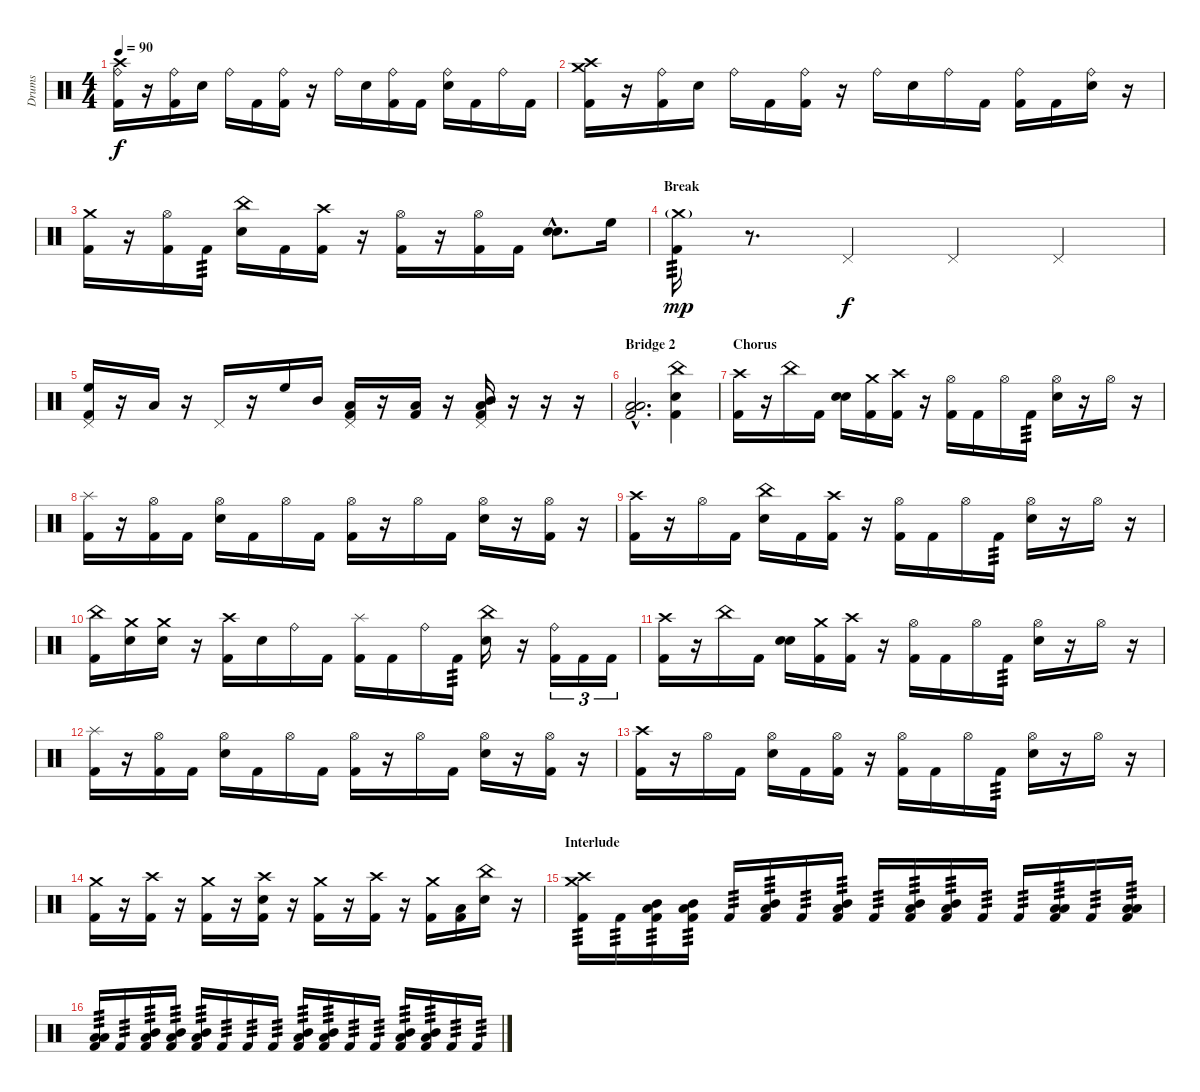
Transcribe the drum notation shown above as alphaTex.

\track ("Drums" "Drums") {instrument percussion}
\staff {score}
\articulation defaults
\ts (4 4)
\tempo 90
\clef neutral
\ks c
("Ride (bell)" "Crash high (hit)" "Kick (hit) 2").16{dy f} r.16 ("Ride (bell)" "Kick (hit) 2").16 "Snare (hit) 2".16 "Ride (bell)".16 "Kick (hit) 2".16 ("Ride (bell)" "Kick (hit) 2").16 r.16 "Ride (bell)".16 "Snare (hit) 2".16 ("Ride (bell)" "Kick (hit) 2").16 "Kick (hit) 2".16 ("Ride (bell)" "Snare (hit) 2").16 "Kick (hit) 2".16 "Ride (bell)".16 "Kick (hit) 2".16 |
("Crash high (hit)" "Crash medium (hit)" "Kick (hit) 2").16 r.16 ("Ride (bell)" "Kick (hit) 2").16 "Snare (hit) 2".16 "Ride (bell)".16 "Kick (hit) 2".16 ("Ride (bell)" "Kick (hit) 2").16 r.16 "Ride (bell)".16 "Snare (hit) 2".16 "Ride (bell)".16 "Kick (hit) 2".16 ("Ride (bell)" "Kick (hit) 2").16 "Kick (hit) 2".16 ("Ride (bell)" "Snare (hit) 2").16 r.16 |
("Crash medium (hit)" "Kick (hit) 2").16 r.16 ("Hi-Hat (open)" "Kick (hit) 2").16 "Kick (hit) 2".16{tp 3} ("China (hit)" "Snare (hit) 2").16 "Kick (hit) 2".16 ("Crash high (hit)" "Kick (hit) 2").16 r.16 ("Hi-Hat (open)" "Kick (hit) 2").16 r.16 ("Hi-Hat (open)" "Kick (hit) 2").16 "Kick (hit) 2".16 ("Snare (hit) 2"{hac} "Snare (hit) 2"{hac}).8{d} "High Floor Tom (hit)".16 |
\section ("" "Break")
("Crash medium (hit)"{g} "Kick (hit) 2").16{tp 3 dy mp} r.8{d} "Pedal Hi-Hat (hit)".4{dy f} "Pedal Hi-Hat (hit)".4 "Pedal Hi-Hat (hit)".4 |
("Pedal Hi-Hat (hit)" "High Floor Tom (hit)" "Kick (hit) 2").16 r.16 "Low Tom (hit)".16 r.16 "Pedal Hi-Hat (hit)".16 r.16 "High Floor Tom (hit)".16 "Mid Tom (hit)".16 ("Pedal Hi-Hat (hit)" "Low Tom (hit)" "Kick (hit) 2").16 r.16 ("Low Floor Tom (hit)" "Kick (hit) 2").16 r.16 ("Pedal Hi-Hat (hit)" "Mid Tom (hit)" "Low Floor Tom (hit)" "Kick (hit) 2").16 r.16 r.16 r.16 |
\section ("" "Bridge 2")
("Low Tom (hit)"{hac} "Low Floor Tom (hit)"{hac} "Kick (hit) 2"{hac}).2{d} ("China (hit)" "Snare (hit) 2" "Kick (hit) 2").4 |
\section ("" "Chorus")
("Crash high (hit)" "Kick (hit) 2").16 r.16 "China (hit)".16 "Kick (hit) 2".16 ("Snare (hit) 2" "Snare (hit) 2").16 ("Crash medium (hit)" "Kick (hit) 2").16 ("Crash high (hit)" "Kick (hit) 2").16 r.16 ("Hi-Hat (open)" "Kick (hit) 2").16 "Kick (hit) 2".16 "Hi-Hat (open)".16 "Kick (hit) 2".16{tp 3} ("Hi-Hat (open)" "Snare (hit) 2").16 r.16 "Hi-Hat (open)".16 r.16 |
("Splash (hit)" "Kick (hit) 2").16 r.16 ("Hi-Hat (open)" "Kick (hit) 2").16 "Kick (hit) 2".16 ("Hi-Hat (open)" "Snare (hit) 2").16 "Kick (hit) 2".16 "Hi-Hat (open)".16 "Kick (hit) 2".16 ("Hi-Hat (open)" "Kick (hit) 2").16 r.16 "Hi-Hat (open)".16 "Kick (hit) 2".16 ("Hi-Hat (open)" "Snare (hit) 2").16 r.16 ("Hi-Hat (open)" "Kick (hit) 2").16 r.16 |
("Crash high (hit)" "Kick (hit) 2").16 r.16 "Hi-Hat (open)".16 "Kick (hit) 2".16 ("China (hit)" "Snare (hit) 2").16 "Kick (hit) 2".16 ("Crash high (hit)" "Kick (hit) 2").16 r.16 ("Hi-Hat (open)" "Kick (hit) 2").16 "Kick (hit) 2".16 "Hi-Hat (open)".16 "Kick (hit) 2".16{tp 3} ("Hi-Hat (open)" "Snare (hit) 2").16 r.16 "Hi-Hat (open)".16 r.16 |
("China (hit)" "Kick (hit) 2").16 ("Crash medium (hit)" "Snare (hit) 2").16 ("Crash medium (hit)" "Snare (hit) 2").16 r.16 ("Crash high (hit)" "Kick (hit) 2").16 "Snare (hit) 2".16 "Ride (bell)".16 "Kick (hit) 2".16 ("Splash (hit)" "Kick (hit) 2").16 "Kick (hit) 2".16 "Ride (bell)".16 "Kick (hit) 2".16{tp 3} ("China (hit)" "Snare (hit) 2").16 r.16 ("Ride (bell)" "Kick (hit) 2").16{tu (3 2)} "Kick (hit) 2".16{tu (3 2)} "Kick (hit) 2".16{tu (3 2)} |
("Crash high (hit)" "Kick (hit) 2").16 r.16 "China (hit)".16 "Kick (hit) 2".16 ("Snare (hit) 2" "Snare (hit) 2").16 ("Crash medium (hit)" "Kick (hit) 2").16 ("Crash high (hit)" "Kick (hit) 2").16 r.16 ("Hi-Hat (open)" "Kick (hit) 2").16 "Kick (hit) 2".16 "Hi-Hat (open)".16 "Kick (hit) 2".16{tp 3} ("Hi-Hat (open)" "Snare (hit) 2").16 r.16 "Hi-Hat (open)".16 r.16 |
("Splash (hit)" "Kick (hit) 2").16 r.16 ("Hi-Hat (open)" "Kick (hit) 2").16 "Kick (hit) 2".16 ("Hi-Hat (open)" "Snare (hit) 2").16 "Kick (hit) 2".16 "Hi-Hat (open)".16 "Kick (hit) 2".16 ("Hi-Hat (open)" "Kick (hit) 2").16 r.16 "Hi-Hat (open)".16 "Kick (hit) 2".16 ("Hi-Hat (open)" "Snare (hit) 2").16 r.16 ("Hi-Hat (open)" "Kick (hit) 2").16 r.16 |
("Crash high (hit)" "Kick (hit) 2").16 r.16 "Hi-Hat (open)".16 "Kick (hit) 2".16 ("Hi-Hat (open)" "Snare (hit) 2").16 "Kick (hit) 2".16 ("Hi-Hat (open)" "Kick (hit) 2").16 r.16 ("Hi-Hat (open)" "Kick (hit) 2").16 "Kick (hit) 2".16 "Hi-Hat (open)".16 "Kick (hit) 2".16{tp 3} ("Hi-Hat (open)" "Snare (hit) 2").16 r.16 "Hi-Hat (open)".16 r.16 |
("Crash medium (hit)" "Kick (hit) 2").16 r.16 ("Crash high (hit)" "Kick (hit) 2").16 r.16 ("Crash medium (hit)" "Kick (hit) 2").16 r.16 ("Crash high (hit)" "Snare (hit) 2" "Kick (hit) 2").16 r.16 ("Crash medium (hit)" "Kick (hit) 2").16 r.16 ("Crash high (hit)" "Kick (hit) 2").16 r.16 ("Crash medium (hit)" "Kick (hit) 2").16 ("Low Tom (hit)" "Kick (hit) 2").16 ("China (hit)" "Snare (hit) 2").16 r.16 |
\section ("" "Interlude")
("Crash high (hit)" "Crash medium (hit)" "Kick (hit) 2").16{tp 3} "Kick (hit) 2".16{tp 3} ("Mid Tom (hit)" "Low Tom (hit)" "Kick (hit) 2").16{tp 3} ("Mid Tom (hit)" "Low Tom (hit)" "Kick (hit) 2").16{tp 3} "Kick (hit) 2".16{tp 3} ("Mid Tom (hit)" "Low Tom (hit)" "Kick (hit) 2").16{tp 3} "Kick (hit) 2".16{tp 3} ("Mid Tom (hit)" "Low Tom (hit)" "Kick (hit) 2").16{tp 3} "Kick (hit) 2".16{tp 3} ("Mid Tom (hit)" "Low Tom (hit)" "Kick (hit) 2").16{tp 3} ("Mid Tom (hit)" "Low Tom (hit)" "Kick (hit) 2").16{tp 3} "Kick (hit) 2".16{tp 3} "Kick (hit) 2".16{tp 3} ("Low Tom (hit)" "Low Floor Tom (hit)" "Kick (hit) 2").16{tp 3} "Kick (hit) 2".16{tp 3} ("Low Tom (hit)" "Low Floor Tom (hit)" "Kick (hit) 2").16{tp 3} |
("Low Tom (hit)" "Low Floor Tom (hit)" "Kick (hit) 2").16{tp 3} "Kick (hit) 2".16{tp 3} ("Mid Tom (hit)" "Low Tom (hit)" "Kick (hit) 2").16{tp 3} ("Mid Tom (hit)" "Low Tom (hit)" "Kick (hit) 2").16{tp 3} ("Mid Tom (hit)" "Low Tom (hit)" "Kick (hit) 2").16{tp 3} "Kick (hit) 2".16{tp 3} "Kick (hit) 2".16{tp 3} "Kick (hit) 2".16{tp 3} ("Mid Tom (hit)" "Low Tom (hit)" "Kick (hit) 2").16{tp 3} ("Mid Tom (hit)" "Low Tom (hit)" "Kick (hit) 2").16{tp 3} "Kick (hit) 2".16{tp 3} "Kick (hit) 2".16{tp 3} ("Mid Tom (hit)" "Low Tom (hit)" "Kick (hit) 2").16{tp 3} ("Mid Tom (hit)" "Low Tom (hit)" "Kick (hit) 2").16{tp 3} "Kick (hit) 2".16{tp 3} "Kick (hit) 2".16{tp 3}
